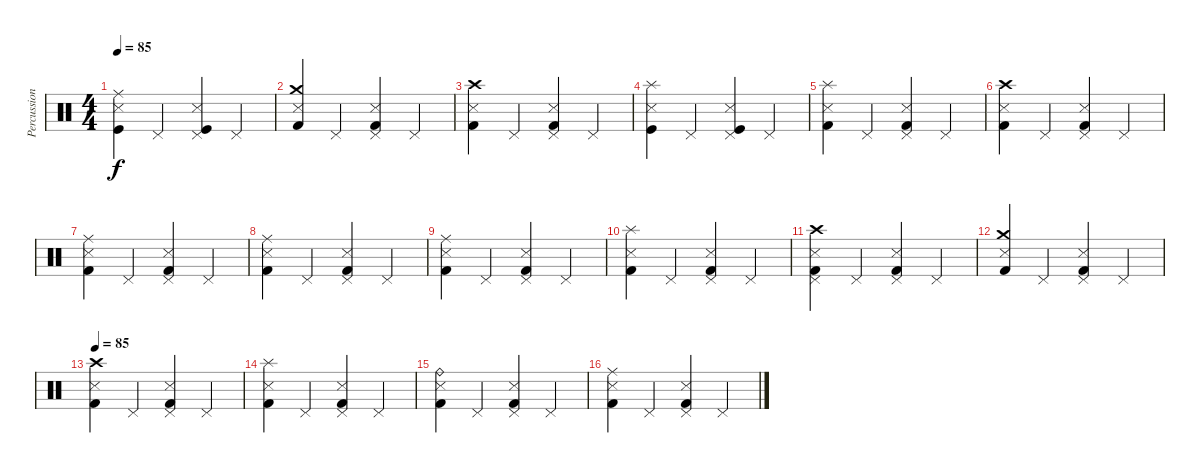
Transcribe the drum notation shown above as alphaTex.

\track ("Percussion" "Percussion") {instrument percussion}
\staff {score}
\articulation defaults
\ts (4 4)
\tempo 85
\clef neutral
\ks c
("Ride (middle)" "Snare (side stick) 3" "Kick (hit)").4{dy f} "Pedal Hi-Hat (hit)".4 ("Pedal Hi-Hat (hit)" "Snare (side stick) 3" "Kick (hit)").4 "Pedal Hi-Hat (hit)".4 |
("Crash medium (hit)" "Snare (side stick) 3" "Kick (hit) 2").4 "Pedal Hi-Hat (hit)".4 ("Pedal Hi-Hat (hit)" "Snare (side stick) 3" "Kick (hit) 2").4 "Pedal Hi-Hat (hit)".4 |
("Crash high (hit)" "Snare (side stick) 3" "Kick (hit) 2").4 "Pedal Hi-Hat (hit)".4 ("Pedal Hi-Hat (hit)" "Snare (side stick) 3" "Kick (hit) 2").4 "Pedal Hi-Hat (hit)".4 |
("Splash (hit)" "Snare (side stick) 3" "Kick (hit)").4 "Pedal Hi-Hat (hit)".4 ("Pedal Hi-Hat (hit)" "Snare (side stick) 3" "Kick (hit)").4 "Pedal Hi-Hat (hit)".4 |
("Splash (hit)" "Snare (side stick) 3" "Kick (hit) 2").4 "Pedal Hi-Hat (hit)".4 ("Pedal Hi-Hat (hit)" "Snare (side stick) 3" "Kick (hit) 2").4 "Pedal Hi-Hat (hit)".4 |
("Crash high (hit)" "Snare (side stick) 3" "Kick (hit) 2").4 "Pedal Hi-Hat (hit)".4 ("Pedal Hi-Hat (hit)" "Snare (side stick) 3" "Kick (hit) 2").4 "Pedal Hi-Hat (hit)".4 |
("Ride (middle)" "Snare (side stick) 3" "Kick (hit) 2").4 "Pedal Hi-Hat (hit)".4 ("Pedal Hi-Hat (hit)" "Snare (side stick) 3" "Kick (hit) 2").4 "Pedal Hi-Hat (hit)".4 |
("Ride (middle)" "Snare (side stick) 3" "Kick (hit) 2").4 "Pedal Hi-Hat (hit)".4 ("Pedal Hi-Hat (hit)" "Snare (side stick) 3" "Kick (hit) 2").4 "Pedal Hi-Hat (hit)".4 |
("Ride (middle)" "Snare (side stick) 3" "Kick (hit) 2").4 "Pedal Hi-Hat (hit)".4 ("Pedal Hi-Hat (hit)" "Snare (side stick) 3" "Kick (hit) 2").4 "Pedal Hi-Hat (hit)".4 |
("Splash (hit)" "Snare (side stick) 3" "Kick (hit) 2").4 "Pedal Hi-Hat (hit)".4 ("Pedal Hi-Hat (hit)" "Snare (side stick) 3" "Kick (hit) 2").4 "Pedal Hi-Hat (hit)".4 |
("Crash high (hit)" "Pedal Hi-Hat (hit)" "Snare (side stick) 3" "Kick (hit) 2").4 "Pedal Hi-Hat (hit)".4 ("Pedal Hi-Hat (hit)" "Snare (side stick) 3" "Kick (hit) 2").4 "Pedal Hi-Hat (hit)".4 |
("Crash medium (hit)" "Snare (side stick) 3" "Kick (hit) 2").4 "Pedal Hi-Hat (hit)".4 ("Pedal Hi-Hat (hit)" "Snare (side stick) 3" "Kick (hit) 2").4 "Pedal Hi-Hat (hit)".4 |
\tempo 85
("Crash high (hit)" "Snare (side stick) 3" "Kick (hit) 2").4 "Pedal Hi-Hat (hit)".4 ("Pedal Hi-Hat (hit)" "Snare (side stick) 3" "Kick (hit) 2").4 "Pedal Hi-Hat (hit)".4 |
("Splash (hit)" "Snare (side stick) 3" "Kick (hit) 2").4 "Pedal Hi-Hat (hit)".4 ("Pedal Hi-Hat (hit)" "Snare (side stick) 3" "Kick (hit) 2").4 "Pedal Hi-Hat (hit)".4 |
("Ride (bell)" "Snare (side stick) 3" "Kick (hit) 2").4 "Pedal Hi-Hat (hit)".4 ("Pedal Hi-Hat (hit)" "Snare (side stick) 3" "Kick (hit) 2").4 "Pedal Hi-Hat (hit)".4 |
("Ride (middle)" "Snare (side stick) 3" "Kick (hit) 2").4 "Pedal Hi-Hat (hit)".4 ("Pedal Hi-Hat (hit)" "Snare (side stick) 3" "Kick (hit) 2").4 "Pedal Hi-Hat (hit)".4
